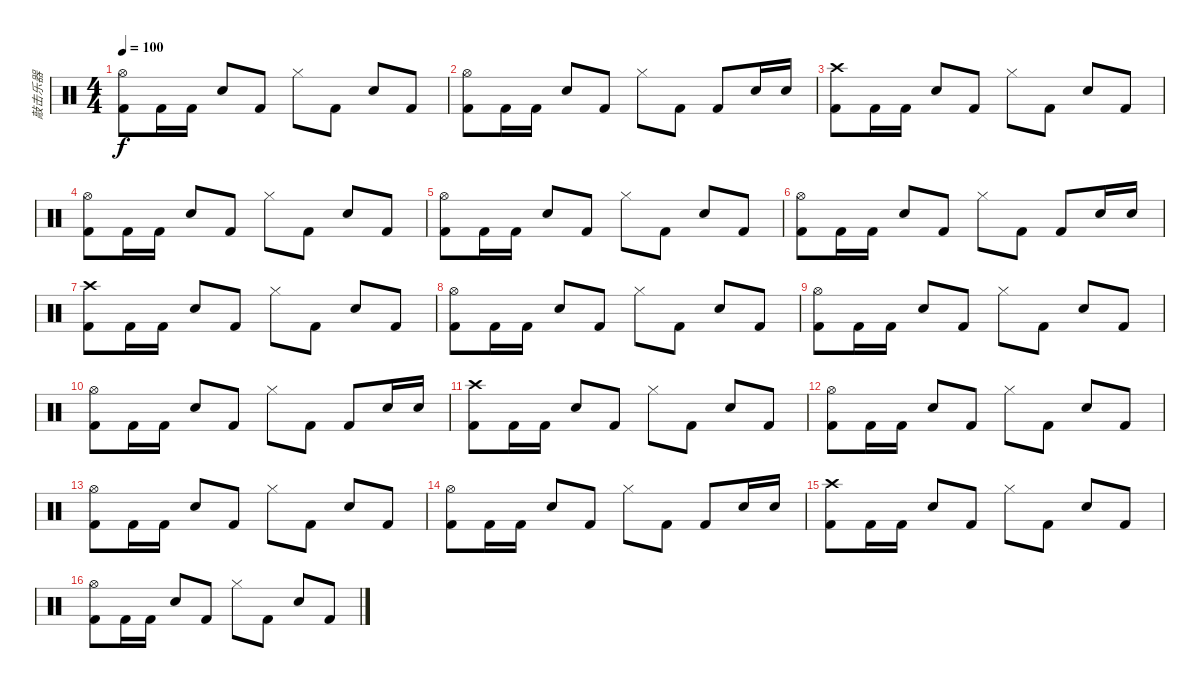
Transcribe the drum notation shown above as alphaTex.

\track ("敲击乐器" "敲击乐器") {instrument percussion}
\staff {score}
\articulation defaults
\ts (4 4)
\tempo 100
\clef neutral
\ks c
("Kick (hit) 2" "Hi-Hat (open)").8{dy f} "Kick (hit) 2".16 "Kick (hit) 2".16 "Metronome (bell)".8 "Kick (hit) 2".8 "Hi-Hat (closed)".8 "Kick (hit) 2".8 "Metronome (bell)".8 "Kick (hit) 2".8 |
("Kick (hit) 2" "Hi-Hat (open)").8 "Kick (hit) 2".16 "Kick (hit) 2".16 "Metronome (bell)".8 "Kick (hit) 2".8 "Hi-Hat (closed)".8 "Kick (hit) 2".8 "Kick (hit) 2".8 "Metronome (bell)".16 "Metronome (bell)".16 |
("Kick (hit) 2" "Crash high (hit)").8 "Kick (hit) 2".16 "Kick (hit) 2".16 "Metronome (bell)".8 "Kick (hit) 2".8 "Hi-Hat (closed)".8 "Kick (hit) 2".8 "Metronome (bell)".8 "Kick (hit) 2".8 |
("Kick (hit) 2" "Hi-Hat (open)").8 "Kick (hit) 2".16 "Kick (hit) 2".16 "Metronome (bell)".8 "Kick (hit) 2".8 "Hi-Hat (closed)".8 "Kick (hit) 2".8 "Metronome (bell)".8 "Kick (hit) 2".8 |
("Kick (hit) 2" "Hi-Hat (open)").8 "Kick (hit) 2".16 "Kick (hit) 2".16 "Metronome (bell)".8 "Kick (hit) 2".8 "Hi-Hat (closed)".8 "Kick (hit) 2".8 "Metronome (bell)".8 "Kick (hit) 2".8 |
("Kick (hit) 2" "Hi-Hat (open)").8 "Kick (hit) 2".16 "Kick (hit) 2".16 "Metronome (bell)".8 "Kick (hit) 2".8 "Hi-Hat (closed)".8 "Kick (hit) 2".8 "Kick (hit) 2".8 "Metronome (bell)".16 "Metronome (bell)".16 |
("Kick (hit) 2" "Crash high (hit)").8 "Kick (hit) 2".16 "Kick (hit) 2".16 "Metronome (bell)".8 "Kick (hit) 2".8 "Hi-Hat (closed)".8 "Kick (hit) 2".8 "Metronome (bell)".8 "Kick (hit) 2".8 |
("Kick (hit) 2" "Hi-Hat (open)").8 "Kick (hit) 2".16 "Kick (hit) 2".16 "Metronome (bell)".8 "Kick (hit) 2".8 "Hi-Hat (closed)".8 "Kick (hit) 2".8 "Metronome (bell)".8 "Kick (hit) 2".8 |
("Kick (hit) 2" "Hi-Hat (open)").8 "Kick (hit) 2".16 "Kick (hit) 2".16 "Metronome (bell)".8 "Kick (hit) 2".8 "Hi-Hat (closed)".8 "Kick (hit) 2".8 "Metronome (bell)".8 "Kick (hit) 2".8 |
("Kick (hit) 2" "Hi-Hat (open)").8 "Kick (hit) 2".16 "Kick (hit) 2".16 "Metronome (bell)".8 "Kick (hit) 2".8 "Hi-Hat (closed)".8 "Kick (hit) 2".8 "Kick (hit) 2".8 "Metronome (bell)".16 "Metronome (bell)".16 |
("Kick (hit) 2" "Crash high (hit)").8 "Kick (hit) 2".16 "Kick (hit) 2".16 "Metronome (bell)".8 "Kick (hit) 2".8 "Hi-Hat (closed)".8 "Kick (hit) 2".8 "Metronome (bell)".8 "Kick (hit) 2".8 |
("Kick (hit) 2" "Hi-Hat (open)").8 "Kick (hit) 2".16 "Kick (hit) 2".16 "Metronome (bell)".8 "Kick (hit) 2".8 "Hi-Hat (closed)".8 "Kick (hit) 2".8 "Metronome (bell)".8 "Kick (hit) 2".8 |
("Kick (hit) 2" "Hi-Hat (open)").8 "Kick (hit) 2".16 "Kick (hit) 2".16 "Metronome (bell)".8 "Kick (hit) 2".8 "Hi-Hat (closed)".8 "Kick (hit) 2".8 "Metronome (bell)".8 "Kick (hit) 2".8 |
("Kick (hit) 2" "Hi-Hat (open)").8 "Kick (hit) 2".16 "Kick (hit) 2".16 "Metronome (bell)".8 "Kick (hit) 2".8 "Hi-Hat (closed)".8 "Kick (hit) 2".8 "Kick (hit) 2".8 "Metronome (bell)".16 "Metronome (bell)".16 |
("Kick (hit) 2" "Crash high (hit)").8 "Kick (hit) 2".16 "Kick (hit) 2".16 "Metronome (bell)".8 "Kick (hit) 2".8 "Hi-Hat (closed)".8 "Kick (hit) 2".8 "Metronome (bell)".8 "Kick (hit) 2".8 |
("Kick (hit) 2" "Hi-Hat (open)").8 "Kick (hit) 2".16 "Kick (hit) 2".16 "Metronome (bell)".8 "Kick (hit) 2".8 "Hi-Hat (closed)".8 "Kick (hit) 2".8 "Metronome (bell)".8 "Kick (hit) 2".8
